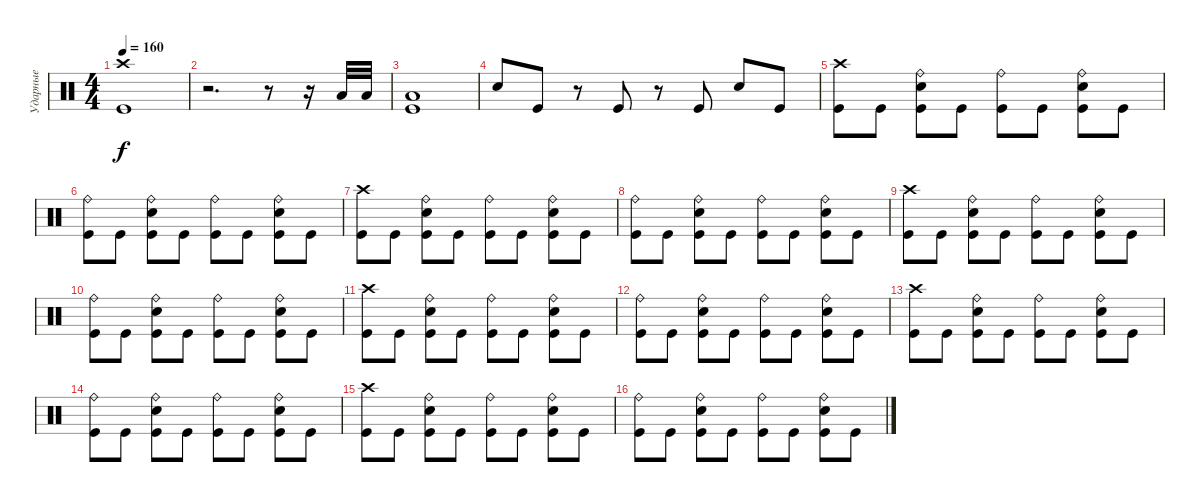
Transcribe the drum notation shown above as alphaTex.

\track ("Ударные" "Ударные") {instrument percussion}
\staff {score}
\articulation defaults
\ts (4 4)
\tempo 160
\clef neutral
\ks c
("Crash high (hit)" "Kick (hit)").1{dy f} |
r.2{d} r.8 r.16 "Low Tom (hit)".32 "Low Tom (hit)".32 |
("Low Tom (hit)" "Kick (hit)").1 |
"Electric Snare (hit)".8 "Kick (hit)".8 r.8 "Kick (hit)".8 r.8 "Kick (hit)".8 "Electric Snare (hit)".8 "Kick (hit)".8 |
("Crash high (hit)" "Kick (hit)").8 "Kick (hit)".8 ("Ride (bell)" "Electric Snare (hit)" "Kick (hit)").8 "Kick (hit)".8 ("Ride (bell)" "Kick (hit)").8 "Kick (hit)".8 ("Ride (bell)" "Electric Snare (hit)" "Kick (hit)").8 "Kick (hit)".8 |
("Ride (bell)" "Kick (hit)").8 "Kick (hit)".8 ("Ride (bell)" "Electric Snare (hit)" "Kick (hit)").8 "Kick (hit)".8 ("Ride (bell)" "Kick (hit)").8 "Kick (hit)".8 ("Ride (bell)" "Electric Snare (hit)" "Kick (hit)").8 "Kick (hit)".8 |
("Crash high (hit)" "Kick (hit)").8 "Kick (hit)".8 ("Ride (bell)" "Electric Snare (hit)" "Kick (hit)").8 "Kick (hit)".8 ("Ride (bell)" "Kick (hit)").8 "Kick (hit)".8 ("Ride (bell)" "Electric Snare (hit)" "Kick (hit)").8 "Kick (hit)".8 |
("Ride (bell)" "Kick (hit)").8 "Kick (hit)".8 ("Ride (bell)" "Electric Snare (hit)" "Kick (hit)").8 "Kick (hit)".8 ("Ride (bell)" "Kick (hit)").8 "Kick (hit)".8 ("Ride (bell)" "Electric Snare (hit)" "Kick (hit)").8 "Kick (hit)".8 |
("Crash high (hit)" "Kick (hit)").8 "Kick (hit)".8 ("Ride (bell)" "Electric Snare (hit)" "Kick (hit)").8 "Kick (hit)".8 ("Ride (bell)" "Kick (hit)").8 "Kick (hit)".8 ("Ride (bell)" "Electric Snare (hit)" "Kick (hit)").8 "Kick (hit)".8 |
("Ride (bell)" "Kick (hit)").8 "Kick (hit)".8 ("Ride (bell)" "Electric Snare (hit)" "Kick (hit)").8 "Kick (hit)".8 ("Ride (bell)" "Kick (hit)").8 "Kick (hit)".8 ("Ride (bell)" "Electric Snare (hit)" "Kick (hit)").8 "Kick (hit)".8 |
("Crash high (hit)" "Kick (hit)").8 "Kick (hit)".8 ("Ride (bell)" "Electric Snare (hit)" "Kick (hit)").8 "Kick (hit)".8 ("Ride (bell)" "Kick (hit)").8 "Kick (hit)".8 ("Ride (bell)" "Electric Snare (hit)" "Kick (hit)").8 "Kick (hit)".8 |
("Ride (bell)" "Kick (hit)").8 "Kick (hit)".8 ("Ride (bell)" "Electric Snare (hit)" "Kick (hit)").8 "Kick (hit)".8 ("Ride (bell)" "Kick (hit)").8 "Kick (hit)".8 ("Ride (bell)" "Electric Snare (hit)" "Kick (hit)").8 "Kick (hit)".8 |
("Crash high (hit)" "Kick (hit)").8 "Kick (hit)".8 ("Ride (bell)" "Electric Snare (hit)" "Kick (hit)").8 "Kick (hit)".8 ("Ride (bell)" "Kick (hit)").8 "Kick (hit)".8 ("Ride (bell)" "Electric Snare (hit)" "Kick (hit)").8 "Kick (hit)".8 |
("Ride (bell)" "Kick (hit)").8 "Kick (hit)".8 ("Ride (bell)" "Electric Snare (hit)" "Kick (hit)").8 "Kick (hit)".8 ("Ride (bell)" "Kick (hit)").8 "Kick (hit)".8 ("Ride (bell)" "Electric Snare (hit)" "Kick (hit)").8 "Kick (hit)".8 |
("Crash high (hit)" "Kick (hit)").8 "Kick (hit)".8 ("Ride (bell)" "Electric Snare (hit)" "Kick (hit)").8 "Kick (hit)".8 ("Ride (bell)" "Kick (hit)").8 "Kick (hit)".8 ("Ride (bell)" "Electric Snare (hit)" "Kick (hit)").8 "Kick (hit)".8 |
("Ride (bell)" "Kick (hit)").8 "Kick (hit)".8 ("Ride (bell)" "Electric Snare (hit)" "Kick (hit)").8 "Kick (hit)".8 ("Ride (bell)" "Kick (hit)").8 "Kick (hit)".8 ("Ride (bell)" "Electric Snare (hit)" "Kick (hit)").8 "Kick (hit)".8
